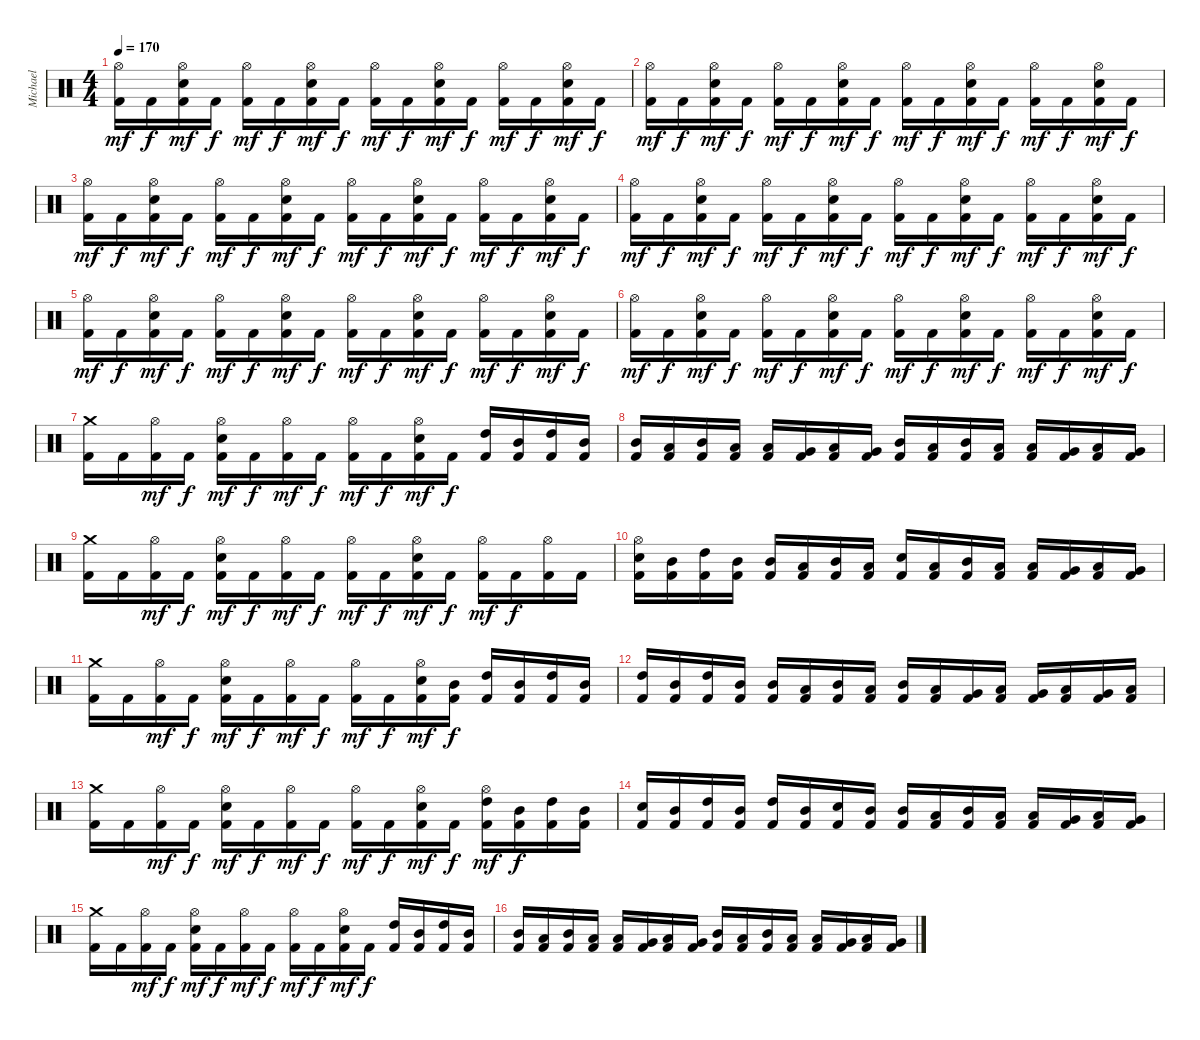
\track ("Michael" "Michael") {instrument percussion}
\staff {score}
\articulation defaults
\ts (4 4)
\tempo 170
\clef neutral
\ks c
("Hi-Hat (open)" "Kick (hit) 2").16{dy mf} "Kick (hit) 2".16{dy f} ("Hi-Hat (open)" "Electric Snare (hit)" "Kick (hit) 2").16{dy mf} "Kick (hit) 2".16{dy f} ("Hi-Hat (open)" "Kick (hit) 2").16{dy mf} "Kick (hit) 2".16{dy f} ("Hi-Hat (open)" "Electric Snare (hit)" "Kick (hit) 2").16{dy mf} "Kick (hit) 2".16{dy f} ("Hi-Hat (open)" "Kick (hit) 2").16{dy mf} "Kick (hit) 2".16{dy f} ("Hi-Hat (open)" "Electric Snare (hit)" "Kick (hit) 2").16{dy mf} "Kick (hit) 2".16{dy f} ("Hi-Hat (open)" "Kick (hit) 2").16{dy mf} "Kick (hit) 2".16{dy f} ("Hi-Hat (open)" "Electric Snare (hit)" "Kick (hit) 2").16{dy mf} "Kick (hit) 2".16{dy f} |
("Hi-Hat (open)" "Kick (hit) 2").16{dy mf} "Kick (hit) 2".16{dy f} ("Hi-Hat (open)" "Electric Snare (hit)" "Kick (hit) 2").16{dy mf} "Kick (hit) 2".16{dy f} ("Hi-Hat (open)" "Kick (hit) 2").16{dy mf} "Kick (hit) 2".16{dy f} ("Hi-Hat (open)" "Electric Snare (hit)" "Kick (hit) 2").16{dy mf} "Kick (hit) 2".16{dy f} ("Hi-Hat (open)" "Kick (hit) 2").16{dy mf} "Kick (hit) 2".16{dy f} ("Hi-Hat (open)" "Electric Snare (hit)" "Kick (hit) 2").16{dy mf} "Kick (hit) 2".16{dy f} ("Hi-Hat (open)" "Kick (hit) 2").16{dy mf} "Kick (hit) 2".16{dy f} ("Hi-Hat (open)" "Electric Snare (hit)" "Kick (hit) 2").16{dy mf} "Kick (hit) 2".16{dy f} |
("Hi-Hat (open)" "Kick (hit) 2").16{dy mf} "Kick (hit) 2".16{dy f} ("Hi-Hat (open)" "Electric Snare (hit)" "Kick (hit) 2").16{dy mf} "Kick (hit) 2".16{dy f} ("Hi-Hat (open)" "Kick (hit) 2").16{dy mf} "Kick (hit) 2".16{dy f} ("Hi-Hat (open)" "Electric Snare (hit)" "Kick (hit) 2").16{dy mf} "Kick (hit) 2".16{dy f} ("Hi-Hat (open)" "Kick (hit) 2").16{dy mf} "Kick (hit) 2".16{dy f} ("Hi-Hat (open)" "Electric Snare (hit)" "Kick (hit) 2").16{dy mf} "Kick (hit) 2".16{dy f} ("Hi-Hat (open)" "Kick (hit) 2").16{dy mf} "Kick (hit) 2".16{dy f} ("Hi-Hat (open)" "Electric Snare (hit)" "Kick (hit) 2").16{dy mf} "Kick (hit) 2".16{dy f} |
("Hi-Hat (open)" "Kick (hit) 2").16{dy mf} "Kick (hit) 2".16{dy f} ("Hi-Hat (open)" "Electric Snare (hit)" "Kick (hit) 2").16{dy mf} "Kick (hit) 2".16{dy f} ("Hi-Hat (open)" "Kick (hit) 2").16{dy mf} "Kick (hit) 2".16{dy f} ("Hi-Hat (open)" "Electric Snare (hit)" "Kick (hit) 2").16{dy mf} "Kick (hit) 2".16{dy f} ("Hi-Hat (open)" "Kick (hit) 2").16{dy mf} "Kick (hit) 2".16{dy f} ("Hi-Hat (open)" "Electric Snare (hit)" "Kick (hit) 2").16{dy mf} "Kick (hit) 2".16{dy f} ("Hi-Hat (open)" "Kick (hit) 2").16{dy mf} "Kick (hit) 2".16{dy f} ("Hi-Hat (open)" "Electric Snare (hit)" "Kick (hit) 2").16{dy mf} "Kick (hit) 2".16{dy f} |
("Hi-Hat (open)" "Kick (hit) 2").16{dy mf} "Kick (hit) 2".16{dy f} ("Hi-Hat (open)" "Electric Snare (hit)" "Kick (hit) 2").16{dy mf} "Kick (hit) 2".16{dy f} ("Hi-Hat (open)" "Kick (hit) 2").16{dy mf} "Kick (hit) 2".16{dy f} ("Hi-Hat (open)" "Electric Snare (hit)" "Kick (hit) 2").16{dy mf} "Kick (hit) 2".16{dy f} ("Hi-Hat (open)" "Kick (hit) 2").16{dy mf} "Kick (hit) 2".16{dy f} ("Hi-Hat (open)" "Electric Snare (hit)" "Kick (hit) 2").16{dy mf} "Kick (hit) 2".16{dy f} ("Hi-Hat (open)" "Kick (hit) 2").16{dy mf} "Kick (hit) 2".16{dy f} ("Hi-Hat (open)" "Electric Snare (hit)" "Kick (hit) 2").16{dy mf} "Kick (hit) 2".16{dy f} |
("Hi-Hat (open)" "Kick (hit) 2").16{dy mf} "Kick (hit) 2".16{dy f} ("Hi-Hat (open)" "Electric Snare (hit)" "Kick (hit) 2").16{dy mf} "Kick (hit) 2".16{dy f} ("Hi-Hat (open)" "Kick (hit) 2").16{dy mf} "Kick (hit) 2".16{dy f} ("Hi-Hat (open)" "Electric Snare (hit)" "Kick (hit) 2").16{dy mf} "Kick (hit) 2".16{dy f} ("Hi-Hat (open)" "Kick (hit) 2").16{dy mf} "Kick (hit) 2".16{dy f} ("Hi-Hat (open)" "Electric Snare (hit)" "Kick (hit) 2").16{dy mf} "Kick (hit) 2".16{dy f} ("Hi-Hat (open)" "Kick (hit) 2").16{dy mf} "Kick (hit) 2".16{dy f} ("Hi-Hat (open)" "Electric Snare (hit)" "Kick (hit) 2").16{dy mf} "Kick (hit) 2".16{dy f} |
("Crash medium (hit)" "Kick (hit) 2").16 "Kick (hit) 2".16 ("Hi-Hat (open)" "Kick (hit) 2").16{dy mf} "Kick (hit) 2".16{dy f} ("Hi-Hat (open)" "Electric Snare (hit)" "Kick (hit) 2").16{dy mf} "Kick (hit) 2".16{dy f} ("Hi-Hat (open)" "Kick (hit) 2").16{dy mf} "Kick (hit) 2".16{dy f} ("Hi-Hat (open)" "Kick (hit) 2").16{dy mf} "Kick (hit) 2".16{dy f} ("Hi-Hat (open)" "Electric Snare (hit)" "Kick (hit) 2").16{dy mf} "Kick (hit) 2".16{dy f} ("High Tom (hit)" "Kick (hit) 2").16 ("Mid Tom (hit)" "Kick (hit) 2").16 ("High Tom (hit)" "Kick (hit) 2").16 ("Mid Tom (hit)" "Kick (hit) 2").16 |
("Mid Tom (hit)" "Kick (hit) 2").16 ("Low Tom (hit)" "Kick (hit) 2").16 ("Mid Tom (hit)" "Kick (hit) 2").16 ("Low Tom (hit)" "Kick (hit) 2").16 ("Low Tom (hit)" "Kick (hit) 2").16 ("Very Low Tom (hit)" "Kick (hit) 2").16 ("Low Tom (hit)" "Kick (hit) 2").16 ("Very Low Tom (hit)" "Kick (hit) 2").16 ("Mid Tom (hit)" "Kick (hit) 2").16 ("Low Tom (hit)" "Kick (hit) 2").16 ("Mid Tom (hit)" "Kick (hit) 2").16 ("Low Tom (hit)" "Kick (hit) 2").16 ("Low Tom (hit)" "Kick (hit) 2").16 ("Very Low Tom (hit)" "Kick (hit) 2").16 ("Low Tom (hit)" "Kick (hit) 2").16 ("Very Low Tom (hit)" "Kick (hit) 2").16 |
("Crash medium (hit)" "Kick (hit) 2").16 "Kick (hit) 2".16 ("Hi-Hat (open)" "Kick (hit) 2").16{dy mf} "Kick (hit) 2".16{dy f} ("Hi-Hat (open)" "Electric Snare (hit)" "Kick (hit) 2").16{dy mf} "Kick (hit) 2".16{dy f} ("Hi-Hat (open)" "Kick (hit) 2").16{dy mf} "Kick (hit) 2".16{dy f} ("Hi-Hat (open)" "Kick (hit) 2").16{dy mf} "Kick (hit) 2".16{dy f} ("Hi-Hat (open)" "Electric Snare (hit)" "Kick (hit) 2").16{dy mf} "Kick (hit) 2".16{dy f} ("Hi-Hat (open)" "Kick (hit) 2").16{dy mf} "Kick (hit) 2".16{dy f} ("Hi-Hat (open)" "Kick (hit) 2").16 "Kick (hit) 2".16 |
("Hi-Hat (open)" "Electric Snare (hit)" "Kick (hit) 2").16 ("Mid Tom (hit)" "Kick (hit) 2").16 ("High Tom (hit)" "Kick (hit) 2").16 ("Mid Tom (hit)" "Kick (hit) 2").16 ("Mid Tom (hit)" "Kick (hit) 2").16 ("Low Tom (hit)" "Kick (hit) 2").16 ("Mid Tom (hit)" "Kick (hit) 2").16 ("Low Tom (hit)" "Kick (hit) 2").16 ("Electric Snare (hit)" "Kick (hit) 2").16 ("Low Tom (hit)" "Kick (hit) 2").16 ("Mid Tom (hit)" "Kick (hit) 2").16 ("Low Tom (hit)" "Kick (hit) 2").16 ("Low Tom (hit)" "Kick (hit) 2").16 ("Very Low Tom (hit)" "Kick (hit) 2").16 ("Low Tom (hit)" "Kick (hit) 2").16 ("Very Low Tom (hit)" "Kick (hit) 2").16 |
("Crash medium (hit)" "Kick (hit) 2").16 "Kick (hit) 2".16 ("Hi-Hat (open)" "Kick (hit) 2").16{dy mf} "Kick (hit) 2".16{dy f} ("Hi-Hat (open)" "Electric Snare (hit)" "Kick (hit) 2").16{dy mf} "Kick (hit) 2".16{dy f} ("Hi-Hat (open)" "Kick (hit) 2").16{dy mf} "Kick (hit) 2".16{dy f} ("Hi-Hat (open)" "Kick (hit) 2").16{dy mf} "Kick (hit) 2".16{dy f} ("Hi-Hat (open)" "Electric Snare (hit)" "Kick (hit) 2").16{dy mf} ("Mid Tom (hit)" "Kick (hit) 2").16{dy f} ("High Tom (hit)" "Kick (hit) 2").16 ("Mid Tom (hit)" "Kick (hit) 2").16 ("High Tom (hit)" "Kick (hit) 2").16 ("Mid Tom (hit)" "Kick (hit) 2").16 |
("High Tom (hit)" "Kick (hit) 2").16 ("Mid Tom (hit)" "Kick (hit) 2").16 ("High Tom (hit)" "Kick (hit) 2").16 ("Mid Tom (hit)" "Kick (hit) 2").16 ("Mid Tom (hit)" "Kick (hit) 2").16 ("Low Tom (hit)" "Kick (hit) 2").16 ("Mid Tom (hit)" "Kick (hit) 2").16 ("Low Tom (hit)" "Kick (hit) 2").16 ("Mid Tom (hit)" "Kick (hit) 2").16 ("Low Tom (hit)" "Kick (hit) 2").16 ("Very Low Tom (hit)" "Kick (hit) 2").16 ("Low Tom (hit)" "Kick (hit) 2").16 ("Very Low Tom (hit)" "Kick (hit) 2").16 ("Low Tom (hit)" "Kick (hit) 2").16 ("Very Low Tom (hit)" "Kick (hit) 2").16 ("Low Tom (hit)" "Kick (hit) 2").16 |
("Crash medium (hit)" "Kick (hit) 2").16 "Kick (hit) 2".16 ("Hi-Hat (open)" "Kick (hit) 2").16{dy mf} "Kick (hit) 2".16{dy f} ("Hi-Hat (open)" "Electric Snare (hit)" "Kick (hit) 2").16{dy mf} "Kick (hit) 2".16{dy f} ("Hi-Hat (open)" "Kick (hit) 2").16{dy mf} "Kick (hit) 2".16{dy f} ("Hi-Hat (open)" "Kick (hit) 2").16{dy mf} "Kick (hit) 2".16{dy f} ("Hi-Hat (open)" "Electric Snare (hit)" "Kick (hit) 2").16{dy mf} "Kick (hit) 2".16{dy f} ("Hi-Hat (open)" "High Tom (hit)" "Kick (hit) 2").16{dy mf} ("Mid Tom (hit)" "Kick (hit) 2").16{dy f} ("High Tom (hit)" "Kick (hit) 2").16 ("Mid Tom (hit)" "Kick (hit) 2").16 |
("Electric Snare (hit)" "Kick (hit) 2").16 ("Mid Tom (hit)" "Kick (hit) 2").16 ("High Tom (hit)" "Kick (hit) 2").16 ("Mid Tom (hit)" "Kick (hit) 2").16 ("High Tom (hit)" "Kick (hit) 2").16 ("Mid Tom (hit)" "Kick (hit) 2").16 ("Electric Snare (hit)" "Kick (hit) 2").16 ("Mid Tom (hit)" "Kick (hit) 2").16 ("Mid Tom (hit)" "Kick (hit) 2").16 ("Low Tom (hit)" "Kick (hit) 2").16 ("Mid Tom (hit)" "Kick (hit) 2").16 ("Low Tom (hit)" "Kick (hit) 2").16 ("Low Tom (hit)" "Kick (hit) 2").16 ("Very Low Tom (hit)" "Kick (hit) 2").16 ("Low Tom (hit)" "Kick (hit) 2").16 ("Very Low Tom (hit)" "Kick (hit) 2").16 |
("Crash medium (hit)" "Kick (hit) 2").16 "Kick (hit) 2".16 ("Hi-Hat (open)" "Kick (hit) 2").16{dy mf} "Kick (hit) 2".16{dy f} ("Hi-Hat (open)" "Electric Snare (hit)" "Kick (hit) 2").16{dy mf} "Kick (hit) 2".16{dy f} ("Hi-Hat (open)" "Kick (hit) 2").16{dy mf} "Kick (hit) 2".16{dy f} ("Hi-Hat (open)" "Kick (hit) 2").16{dy mf} "Kick (hit) 2".16{dy f} ("Hi-Hat (open)" "Electric Snare (hit)" "Kick (hit) 2").16{dy mf} "Kick (hit) 2".16{dy f} ("High Tom (hit)" "Kick (hit) 2").16 ("Mid Tom (hit)" "Kick (hit) 2").16 ("High Tom (hit)" "Kick (hit) 2").16 ("Mid Tom (hit)" "Kick (hit) 2").16 |
("Mid Tom (hit)" "Kick (hit) 2").16 ("Low Tom (hit)" "Kick (hit) 2").16 ("Mid Tom (hit)" "Kick (hit) 2").16 ("Low Tom (hit)" "Kick (hit) 2").16 ("Low Tom (hit)" "Kick (hit) 2").16 ("Very Low Tom (hit)" "Kick (hit) 2").16 ("Low Tom (hit)" "Kick (hit) 2").16 ("Very Low Tom (hit)" "Kick (hit) 2").16 ("Mid Tom (hit)" "Kick (hit) 2").16 ("Low Tom (hit)" "Kick (hit) 2").16 ("Mid Tom (hit)" "Kick (hit) 2").16 ("Low Tom (hit)" "Kick (hit) 2").16 ("Low Tom (hit)" "Kick (hit) 2").16 ("Very Low Tom (hit)" "Kick (hit) 2").16 ("Low Tom (hit)" "Kick (hit) 2").16 ("Very Low Tom (hit)" "Kick (hit) 2").16
